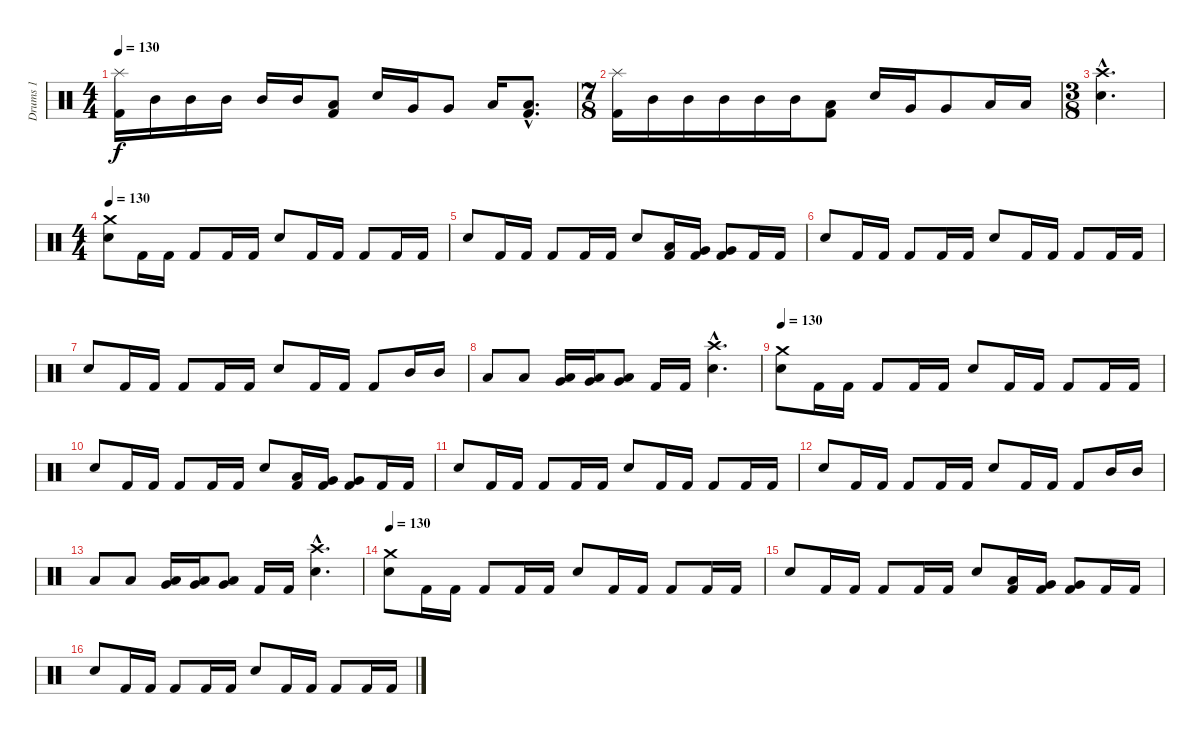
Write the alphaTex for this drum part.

\track ("Drums 1" "Drums 1") {instrument percussion}
\staff {score}
\articulation defaults
\ts (4 4)
\tempo 130
\clef neutral
\ks c
("Splash (hit)" "Kick (hit) 2").16{dy f} "Mid Tom (hit)".16 "Mid Tom (hit)".16 "Mid Tom (hit)".16 "Mid Tom (hit)".16 "Mid Tom (hit)".16 ("Low Tom (hit)" "Kick (hit) 2").8 "Snare (hit) 2".16 "Very Low Tom (hit)".16 "Very Low Tom (hit)".8 "Low Floor Tom (hit)".16 ("Low Floor Tom (hit)"{hac} "Kick (hit) 2"{hac}).8{d} |
\ts (7 8)
("Splash (hit)" "Kick (hit) 2").16 "Mid Tom (hit)".16 "Mid Tom (hit)".16 "Mid Tom (hit)".16 "Mid Tom (hit)".16 "Mid Tom (hit)".16 ("Low Tom (hit)" "Kick (hit) 2").8 "Snare (hit) 2".16 "Very Low Tom (hit)".16 "Very Low Tom (hit)".8 "Low Floor Tom (hit)".16 "Low Floor Tom (hit)".16 |
\ts (3 8)
("Crash high (hit)"{hac} "Snare (hit) 2"{hac}).4{d} |
\ts (4 4)
\tempo 130
("Crash medium (hit)" "Snare (hit) 2").8 "Kick (hit) 2".16 "Kick (hit) 2".16 "Kick (hit) 2".8 "Kick (hit) 2".16 "Kick (hit) 2".16 "Snare (hit) 2".8 "Kick (hit) 2".16 "Kick (hit) 2".16 "Kick (hit) 2".8 "Kick (hit) 2".16 "Kick (hit) 2".16 |
"Snare (hit) 2".8 "Kick (hit) 2".16 "Kick (hit) 2".16 "Kick (hit) 2".8 "Kick (hit) 2".16 "Kick (hit) 2".16 "Snare (hit) 2".8 ("Low Tom (hit)" "Kick (hit) 2").16 ("Very Low Tom (hit)" "Kick (hit) 2").16 ("Very Low Tom (hit)" "Kick (hit) 2").8 "Kick (hit) 2".16 "Kick (hit) 2".16 |
"Snare (hit) 2".8 "Kick (hit) 2".16 "Kick (hit) 2".16 "Kick (hit) 2".8 "Kick (hit) 2".16 "Kick (hit) 2".16 "Snare (hit) 2".8 "Kick (hit) 2".16 "Kick (hit) 2".16 "Kick (hit) 2".8 "Kick (hit) 2".16 "Kick (hit) 2".16 |
"Snare (hit) 2".8 "Kick (hit) 2".16 "Kick (hit) 2".16 "Kick (hit) 2".8 "Kick (hit) 2".16 "Kick (hit) 2".16 "Snare (hit) 2".8 "Kick (hit) 2".16 "Kick (hit) 2".16 "Kick (hit) 2".8 "Mid Tom (hit)".16 "Mid Tom (hit)".16 |
"Low Tom (hit)".8 "Low Tom (hit)".8 ("Very Low Tom (hit)" "Low Floor Tom (hit)").16 ("Very Low Tom (hit)" "Low Floor Tom (hit)").16 ("Very Low Tom (hit)" "Low Floor Tom (hit)").8 "Kick (hit) 2".16 "Kick (hit) 2".16 ("Crash high (hit)"{hac} "Snare (hit) 2"{hac}).4{d} |
\tempo 130
("Crash medium (hit)" "Snare (hit) 2").8 "Kick (hit) 2".16 "Kick (hit) 2".16 "Kick (hit) 2".8 "Kick (hit) 2".16 "Kick (hit) 2".16 "Snare (hit) 2".8 "Kick (hit) 2".16 "Kick (hit) 2".16 "Kick (hit) 2".8 "Kick (hit) 2".16 "Kick (hit) 2".16 |
"Snare (hit) 2".8 "Kick (hit) 2".16 "Kick (hit) 2".16 "Kick (hit) 2".8 "Kick (hit) 2".16 "Kick (hit) 2".16 "Snare (hit) 2".8 ("Low Tom (hit)" "Kick (hit) 2").16 ("Very Low Tom (hit)" "Kick (hit) 2").16 ("Very Low Tom (hit)" "Kick (hit) 2").8 "Kick (hit) 2".16 "Kick (hit) 2".16 |
"Snare (hit) 2".8 "Kick (hit) 2".16 "Kick (hit) 2".16 "Kick (hit) 2".8 "Kick (hit) 2".16 "Kick (hit) 2".16 "Snare (hit) 2".8 "Kick (hit) 2".16 "Kick (hit) 2".16 "Kick (hit) 2".8 "Kick (hit) 2".16 "Kick (hit) 2".16 |
"Snare (hit) 2".8 "Kick (hit) 2".16 "Kick (hit) 2".16 "Kick (hit) 2".8 "Kick (hit) 2".16 "Kick (hit) 2".16 "Snare (hit) 2".8 "Kick (hit) 2".16 "Kick (hit) 2".16 "Kick (hit) 2".8 "Mid Tom (hit)".16 "Mid Tom (hit)".16 |
"Low Tom (hit)".8 "Low Tom (hit)".8 ("Very Low Tom (hit)" "Low Floor Tom (hit)").16 ("Very Low Tom (hit)" "Low Floor Tom (hit)").16 ("Very Low Tom (hit)" "Low Floor Tom (hit)").8 "Kick (hit) 2".16 "Kick (hit) 2".16 ("Crash high (hit)"{hac} "Snare (hit) 2"{hac}).4{d} |
\tempo 130
("Crash medium (hit)" "Snare (hit) 2").8 "Kick (hit) 2".16 "Kick (hit) 2".16 "Kick (hit) 2".8 "Kick (hit) 2".16 "Kick (hit) 2".16 "Snare (hit) 2".8 "Kick (hit) 2".16 "Kick (hit) 2".16 "Kick (hit) 2".8 "Kick (hit) 2".16 "Kick (hit) 2".16 |
"Snare (hit) 2".8 "Kick (hit) 2".16 "Kick (hit) 2".16 "Kick (hit) 2".8 "Kick (hit) 2".16 "Kick (hit) 2".16 "Snare (hit) 2".8 ("Low Tom (hit)" "Kick (hit) 2").16 ("Very Low Tom (hit)" "Kick (hit) 2").16 ("Very Low Tom (hit)" "Kick (hit) 2").8 "Kick (hit) 2".16 "Kick (hit) 2".16 |
"Snare (hit) 2".8 "Kick (hit) 2".16 "Kick (hit) 2".16 "Kick (hit) 2".8 "Kick (hit) 2".16 "Kick (hit) 2".16 "Snare (hit) 2".8 "Kick (hit) 2".16 "Kick (hit) 2".16 "Kick (hit) 2".8 "Kick (hit) 2".16 "Kick (hit) 2".16
